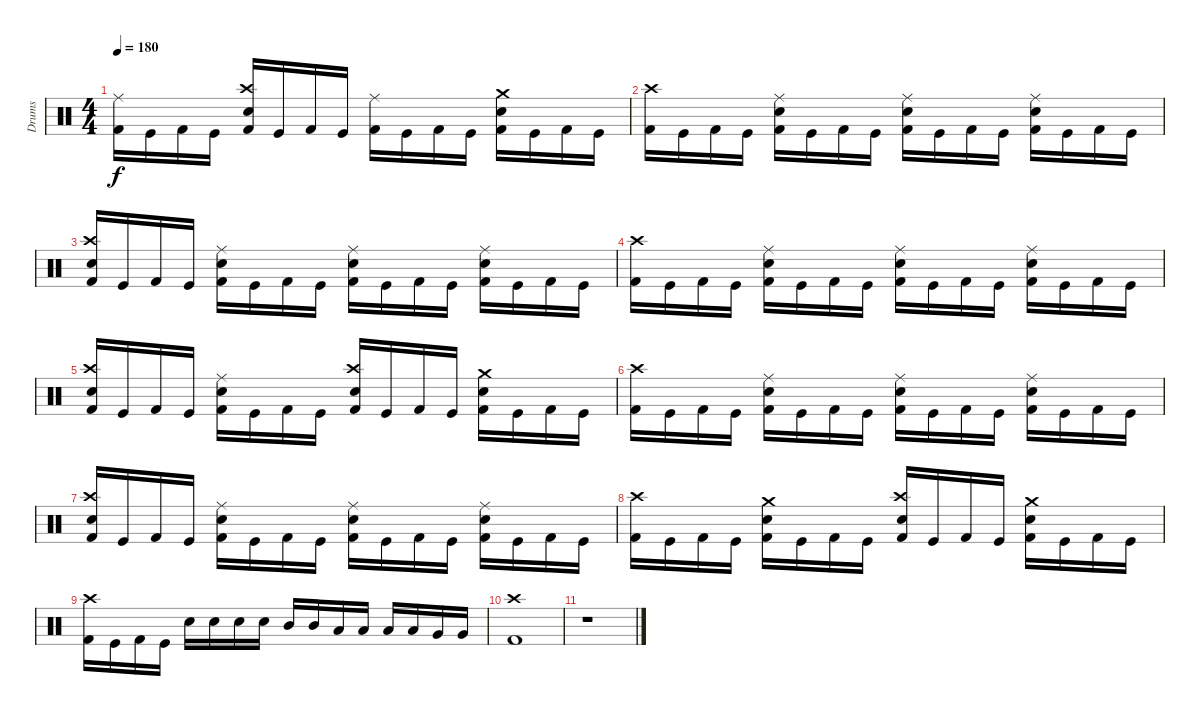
\track ("Drums" "Drums") {instrument percussion}
\staff {score}
\articulation defaults
\ts (4 4)
\tempo 180
\clef neutral
\ks c
("Ride (middle)" "Kick (hit) 2").16{dy f} "Kick (hit)".16 "Kick (hit) 2".16 "Kick (hit)".16 ("Crash high (hit)" "Electric Snare (hit)" "Kick (hit) 2").16 "Kick (hit)".16 "Kick (hit) 2".16 "Kick (hit)".16 ("Ride (middle)" "Kick (hit) 2").16 "Kick (hit)".16 "Kick (hit) 2".16 "Kick (hit)".16 ("Crash medium (hit)" "Electric Snare (hit)" "Kick (hit) 2").16 "Kick (hit)".16 "Kick (hit) 2".16 "Kick (hit)".16 |
("Crash high (hit)" "Kick (hit) 2").16 "Kick (hit)".16 "Kick (hit) 2".16 "Kick (hit)".16 ("Ride (middle)" "Electric Snare (hit)" "Kick (hit) 2").16 "Kick (hit)".16 "Kick (hit) 2".16 "Kick (hit)".16 ("Ride (middle)" "Electric Snare (hit)" "Kick (hit) 2").16 "Kick (hit)".16 "Kick (hit) 2".16 "Kick (hit)".16 ("Ride (middle)" "Electric Snare (hit)" "Kick (hit) 2").16 "Kick (hit)".16 "Kick (hit) 2".16 "Kick (hit)".16 |
("Crash high (hit)" "Electric Snare (hit)" "Kick (hit) 2").16 "Kick (hit)".16 "Kick (hit) 2".16 "Kick (hit)".16 ("Ride (middle)" "Electric Snare (hit)" "Kick (hit) 2").16 "Kick (hit)".16 "Kick (hit) 2".16 "Kick (hit)".16 ("Ride (middle)" "Electric Snare (hit)" "Kick (hit) 2").16 "Kick (hit)".16 "Kick (hit) 2".16 "Kick (hit)".16 ("Ride (middle)" "Electric Snare (hit)" "Kick (hit) 2").16 "Kick (hit)".16 "Kick (hit) 2".16 "Kick (hit)".16 |
("Crash high (hit)" "Kick (hit) 2").16 "Kick (hit)".16 "Kick (hit) 2".16 "Kick (hit)".16 ("Ride (middle)" "Electric Snare (hit)" "Kick (hit) 2").16 "Kick (hit)".16 "Kick (hit) 2".16 "Kick (hit)".16 ("Ride (middle)" "Electric Snare (hit)" "Kick (hit) 2").16 "Kick (hit)".16 "Kick (hit) 2".16 "Kick (hit)".16 ("Ride (middle)" "Electric Snare (hit)" "Kick (hit) 2").16 "Kick (hit)".16 "Kick (hit) 2".16 "Kick (hit)".16 |
("Crash high (hit)" "Electric Snare (hit)" "Kick (hit) 2").16 "Kick (hit)".16 "Kick (hit) 2".16 "Kick (hit)".16 ("Ride (middle)" "Electric Snare (hit)" "Kick (hit) 2").16 "Kick (hit)".16 "Kick (hit) 2".16 "Kick (hit)".16 ("Crash high (hit)" "Electric Snare (hit)" "Kick (hit) 2").16 "Kick (hit)".16 "Kick (hit) 2".16 "Kick (hit)".16 ("Crash medium (hit)" "Electric Snare (hit)" "Kick (hit) 2").16 "Kick (hit)".16 "Kick (hit) 2".16 "Kick (hit)".16 |
("Crash high (hit)" "Kick (hit) 2").16 "Kick (hit)".16 "Kick (hit) 2".16 "Kick (hit)".16 ("Ride (middle)" "Electric Snare (hit)" "Kick (hit) 2").16 "Kick (hit)".16 "Kick (hit) 2".16 "Kick (hit)".16 ("Ride (middle)" "Electric Snare (hit)" "Kick (hit) 2").16 "Kick (hit)".16 "Kick (hit) 2".16 "Kick (hit)".16 ("Ride (middle)" "Electric Snare (hit)" "Kick (hit) 2").16 "Kick (hit)".16 "Kick (hit) 2".16 "Kick (hit)".16 |
("Crash high (hit)" "Electric Snare (hit)" "Kick (hit) 2").16 "Kick (hit)".16 "Kick (hit) 2".16 "Kick (hit)".16 ("Ride (middle)" "Electric Snare (hit)" "Kick (hit) 2").16 "Kick (hit)".16 "Kick (hit) 2".16 "Kick (hit)".16 ("Ride (middle)" "Electric Snare (hit)" "Kick (hit) 2").16 "Kick (hit)".16 "Kick (hit) 2".16 "Kick (hit)".16 ("Ride (middle)" "Electric Snare (hit)" "Kick (hit) 2").16 "Kick (hit)".16 "Kick (hit) 2".16 "Kick (hit)".16 |
("Crash high (hit)" "Kick (hit) 2").16 "Kick (hit)".16 "Kick (hit) 2".16 "Kick (hit)".16 ("Crash medium (hit)" "Electric Snare (hit)" "Kick (hit) 2").16 "Kick (hit)".16 "Kick (hit) 2".16 "Kick (hit)".16 ("Crash high (hit)" "Electric Snare (hit)" "Kick (hit) 2").16 "Kick (hit)".16 "Kick (hit) 2".16 "Kick (hit)".16 ("Crash medium (hit)" "Electric Snare (hit)" "Kick (hit) 2").16 "Kick (hit)".16 "Kick (hit) 2".16 "Kick (hit)".16 |
("Crash high (hit)" "Kick (hit) 2").16 "Kick (hit)".16 "Kick (hit) 2".16 "Kick (hit)".16 "Electric Snare (hit)".16 "Electric Snare (hit)".16 "Electric Snare (hit)".16 "Electric Snare (hit)".16 "Mid Tom (hit)".16 "Mid Tom (hit)".16 "Low Tom (hit)".16 "Low Tom (hit)".16 "Low Tom (hit)".16 "Low Tom (hit)".16 "Very Low Tom (hit)".16 "Very Low Tom (hit)".16 |
("Crash high (hit)" "Kick (hit) 2").1 |
r.1
